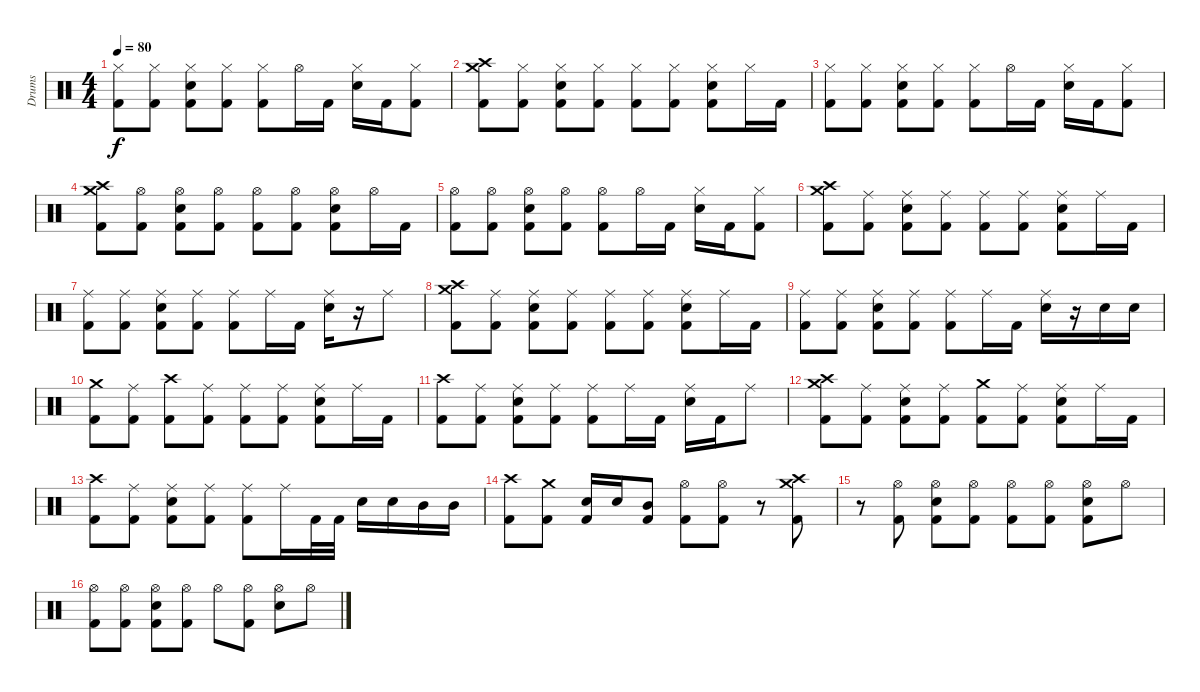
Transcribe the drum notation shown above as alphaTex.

\track ("Drums" "Drums") {instrument percussion}
\staff {score}
\articulation defaults
\ts (4 4)
\tempo 80
\clef neutral
\ks c
("Hi-Hat (closed)" "Kick (hit) 2").8{dy f} ("Hi-Hat (closed)" "Kick (hit) 2").8 ("Hi-Hat (closed)" "Electric Snare (hit)" "Kick (hit) 2").8 ("Hi-Hat (closed)" "Kick (hit) 2").8 ("Hi-Hat (closed)" "Kick (hit) 2").8 "Hi-Hat (open)".16 "Kick (hit) 2".16 ("Hi-Hat (closed)" "Electric Snare (hit)").16 "Kick (hit) 2".16 ("Hi-Hat (closed)" "Kick (hit) 2").8 |
("Crash high (hit)" "Crash medium (hit)" "Kick (hit) 2").8 ("Hi-Hat (closed)" "Kick (hit) 2").8 ("Hi-Hat (closed)" "Electric Snare (hit)" "Kick (hit) 2").8 ("Hi-Hat (closed)" "Kick (hit) 2").8 ("Hi-Hat (closed)" "Kick (hit) 2").8 ("Hi-Hat (closed)" "Kick (hit) 2").8 ("Hi-Hat (closed)" "Electric Snare (hit)" "Kick (hit) 2").8 "Hi-Hat (closed)".16 "Kick (hit) 2".16 |
("Hi-Hat (closed)" "Kick (hit) 2").8 ("Hi-Hat (closed)" "Kick (hit) 2").8 ("Hi-Hat (closed)" "Electric Snare (hit)" "Kick (hit) 2").8 ("Hi-Hat (closed)" "Kick (hit) 2").8 ("Hi-Hat (closed)" "Kick (hit) 2").8 "Hi-Hat (open)".16 "Kick (hit) 2".16 ("Hi-Hat (closed)" "Electric Snare (hit)").16 "Kick (hit) 2".16 ("Hi-Hat (closed)" "Kick (hit) 2").8 |
("Crash high (hit)" "Crash medium (hit)" "Kick (hit) 2").8 ("Hi-Hat (open)" "Kick (hit) 2").8 ("Hi-Hat (open)" "Electric Snare (hit)" "Kick (hit) 2").8 ("Hi-Hat (open)" "Kick (hit) 2").8 ("Hi-Hat (open)" "Kick (hit) 2").8 ("Hi-Hat (open)" "Kick (hit) 2").8 ("Hi-Hat (open)" "Electric Snare (hit)" "Kick (hit) 2").8 "Hi-Hat (open)".16 "Kick (hit) 2".16 |
("Hi-Hat (open)" "Kick (hit) 2").8 ("Hi-Hat (open)" "Kick (hit) 2").8 ("Hi-Hat (open)" "Electric Snare (hit)" "Kick (hit) 2").8 ("Hi-Hat (open)" "Kick (hit) 2").8 ("Hi-Hat (open)" "Kick (hit) 2").8 "Hi-Hat (open)".16 "Kick (hit) 2".16 ("Hi-Hat (closed)" "Electric Snare (hit)").16 "Kick (hit) 2".16 ("Hi-Hat (closed)" "Kick (hit) 2").8 |
("Crash high (hit)" "Crash medium (hit)" "Kick (hit) 2").8 ("Ride (middle)" "Kick (hit) 2").8 ("Ride (middle)" "Electric Snare (hit)" "Kick (hit) 2").8 ("Ride (middle)" "Kick (hit) 2").8 ("Ride (middle)" "Kick (hit) 2").8 ("Ride (middle)" "Kick (hit) 2").8 ("Ride (middle)" "Electric Snare (hit)" "Kick (hit) 2").8 "Ride (middle)".16 "Kick (hit) 2".16 |
("Ride (middle)" "Kick (hit) 2").8 ("Ride (middle)" "Kick (hit) 2").8 ("Ride (middle)" "Electric Snare (hit)" "Kick (hit) 2").8 ("Ride (middle)" "Kick (hit) 2").8 ("Ride (middle)" "Kick (hit) 2").8 "Ride (middle)".16 "Kick (hit) 2".16 ("Ride (middle)" "Electric Snare (hit)").16 r.16 "Ride (middle)".8 |
("Crash high (hit)" "Crash medium (hit)" "Kick (hit) 2").8 ("Ride (middle)" "Kick (hit) 2").8 ("Ride (middle)" "Electric Snare (hit)" "Kick (hit) 2").8 ("Ride (middle)" "Kick (hit) 2").8 ("Ride (middle)" "Kick (hit) 2").8 ("Ride (middle)" "Kick (hit) 2").8 ("Ride (middle)" "Electric Snare (hit)" "Kick (hit) 2").8 "Ride (middle)".16 "Kick (hit) 2".16 |
("Ride (middle)" "Kick (hit) 2").8 ("Ride (middle)" "Kick (hit) 2").8 ("Ride (middle)" "Electric Snare (hit)" "Kick (hit) 2").8 ("Ride (middle)" "Kick (hit) 2").8 ("Ride (middle)" "Kick (hit) 2").8 "Ride (middle)".16 "Kick (hit) 2".16 ("Ride (middle)" "Electric Snare (hit)").16 r.16 "Electric Snare (hit)".16 "Electric Snare (hit)".16 |
("Crash medium (hit)" "Kick (hit) 2").8 ("Ride (middle)" "Kick (hit) 2").8 ("Crash high (hit)" "Kick (hit) 2").8 ("Ride (middle)" "Kick (hit) 2").8 ("Ride (middle)" "Kick (hit) 2").8 ("Ride (middle)" "Kick (hit) 2").8 ("Ride (middle)" "Electric Snare (hit)" "Kick (hit) 2").8 "Ride (middle)".16 "Kick (hit) 2".16 |
("Crash high (hit)" "Kick (hit) 2").8 ("Ride (middle)" "Kick (hit) 2").8 ("Ride (middle)" "Electric Snare (hit)" "Kick (hit) 2").8 ("Ride (middle)" "Kick (hit) 2").8 ("Ride (middle)" "Kick (hit) 2").8 "Ride (middle)".16 "Kick (hit) 2".16 ("Ride (middle)" "Electric Snare (hit)").16 "Kick (hit) 2".16 "Ride (middle)".8 |
("Crash high (hit)" "Crash medium (hit)" "Kick (hit) 2").8 ("Ride (middle)" "Kick (hit) 2").8 ("Ride (middle)" "Electric Snare (hit)" "Kick (hit) 2").8 ("Ride (middle)" "Kick (hit) 2").8 ("Crash medium (hit)" "Kick (hit) 2").8 ("Ride (middle)" "Kick (hit) 2").8 ("Ride (middle)" "Electric Snare (hit)" "Kick (hit) 2").8 "Ride (middle)".16 "Kick (hit) 2".16 |
("Crash high (hit)" "Kick (hit) 2").8 ("Ride (middle)" "Kick (hit) 2").8 ("Ride (middle)" "Electric Snare (hit)" "Kick (hit) 2").8 ("Ride (middle)" "Kick (hit) 2").8 ("Ride (middle)" "Kick (hit) 2").8 "Ride (middle)".16 "Kick (hit) 2".32 "Kick (hit) 2".32 "Electric Snare (hit)".16 "Electric Snare (hit)".16 "Mid Tom (hit)".16 "Mid Tom (hit)".16 |
("Crash high (hit)" "Kick (hit) 2").8 ("Crash medium (hit)" "Kick (hit) 2").8 ("Electric Snare (hit)" "Kick (hit) 2").16 "Electric Snare (hit)".16 ("Mid Tom (hit)" "Kick (hit) 2").8 ("Hi-Hat (open)" "Kick (hit) 2").8 ("Hi-Hat (open)" "Kick (hit) 2").8 r.8 ("Crash high (hit)" "Crash medium (hit)" "Kick (hit) 2").8 |
r.8 ("Hi-Hat (open)" "Kick (hit) 2").8 ("Hi-Hat (open)" "Electric Snare (hit)" "Kick (hit) 2").8 ("Hi-Hat (open)" "Kick (hit) 2").8 ("Hi-Hat (open)" "Kick (hit) 2").8 ("Hi-Hat (open)" "Kick (hit) 2").8 ("Hi-Hat (open)" "Electric Snare (hit)" "Kick (hit) 2").8 "Hi-Hat (open)".8 |
("Hi-Hat (open)" "Kick (hit) 2").8 ("Hi-Hat (open)" "Kick (hit) 2").8 ("Hi-Hat (open)" "Electric Snare (hit)" "Kick (hit) 2").8 ("Hi-Hat (open)" "Kick (hit) 2").8 "Hi-Hat (open)".8 ("Hi-Hat (open)" "Kick (hit) 2").8 ("Hi-Hat (open)" "Electric Snare (hit)").8 "Hi-Hat (open)".8
